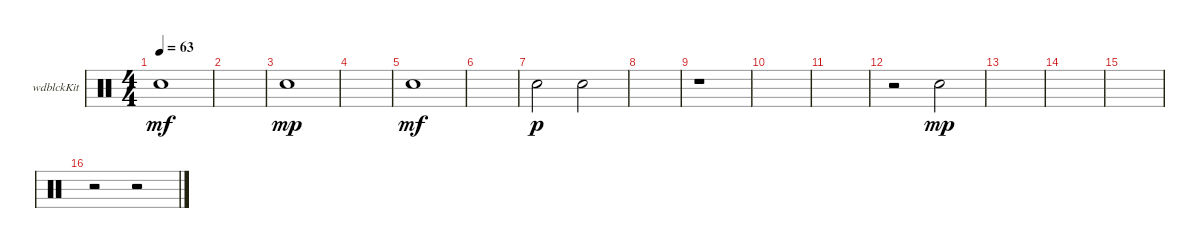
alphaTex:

\defaultSystemsLayout 4
\bracketExtendMode groupsimilarinstruments
\firstSystemTrackNameOrientation horizontal
\otherSystemsTrackNameOrientation horizontal
\track ("Woodblock" "wdblckKit") {instrument percussion}
\staff {score}
\articulation defaults
\ts (4 4)
\tempo 63
\clef neutral
\scale
0.5
\ks c "Snare (hit) 2".1{dy mf}
|
\scale
0.25 |
\scale
0.25 "Snare (hit) 2".1{dy mp} |
\scale
0.333333 |
\scale
0.333333 "Snare (hit) 2".1{dy mf} |
\scale
0.333333 |
\scale
0.333333 "Snare (hit) 2".2{dy p} "Snare (hit) 2".2 |
\scale
0.333333 |
\scale
0.333333 r.1 |
\scale
0.333333 |
\scale
0.333333 |
\scale
0.333333 r.2 "Snare (hit) 2".2{dy mp} |
\scale
0.333333 |
\scale
0.333333 |
\scale
0.333333 |
\scale
0.333333 r.2 r.2
